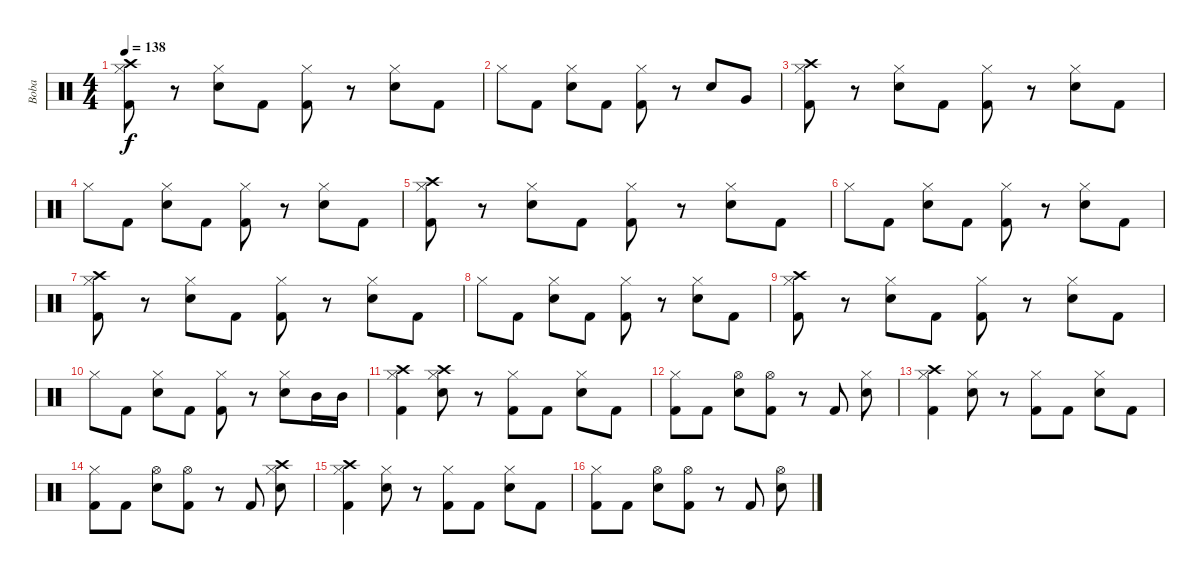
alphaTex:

\track ("Boba" "Boba") {instrument percussion}
\staff {score}
\articulation defaults
\ts (4 4)
\tempo 138
\clef neutral
\ks c
("Crash high (hit)" "Hi-Hat (closed)" "Kick (hit) 2").8{dy f} r.8 ("Hi-Hat (closed)" "Electric Snare (hit)").8 "Kick (hit) 2".8 ("Hi-Hat (closed)" "Kick (hit) 2").8 r.8 ("Hi-Hat (closed)" "Electric Snare (hit)").8 "Kick (hit) 2".8 |
"Hi-Hat (closed)".8 "Kick (hit) 2".8 ("Hi-Hat (closed)" "Electric Snare (hit)").8 "Kick (hit) 2".8 ("Hi-Hat (closed)" "Kick (hit) 2").8 r.8 "Electric Snare (hit)".8 "Very Low Tom (hit)".8 |
("Crash high (hit)" "Hi-Hat (closed)" "Kick (hit) 2").8 r.8 ("Hi-Hat (closed)" "Electric Snare (hit)").8 "Kick (hit) 2".8 ("Hi-Hat (closed)" "Kick (hit) 2").8 r.8 ("Hi-Hat (closed)" "Electric Snare (hit)").8 "Kick (hit) 2".8 |
"Hi-Hat (closed)".8 "Kick (hit) 2".8 ("Hi-Hat (closed)" "Electric Snare (hit)").8 "Kick (hit) 2".8 ("Hi-Hat (closed)" "Kick (hit) 2").8 r.8 ("Hi-Hat (closed)" "Electric Snare (hit)").8 "Kick (hit) 2".8 |
("Crash high (hit)" "Hi-Hat (closed)" "Kick (hit) 2").8 r.8 ("Hi-Hat (closed)" "Electric Snare (hit)").8 "Kick (hit) 2".8 ("Hi-Hat (closed)" "Kick (hit) 2").8 r.8 ("Hi-Hat (closed)" "Electric Snare (hit)").8 "Kick (hit) 2".8 |
"Hi-Hat (closed)".8 "Kick (hit) 2".8 ("Hi-Hat (closed)" "Electric Snare (hit)").8 "Kick (hit) 2".8 ("Hi-Hat (closed)" "Kick (hit) 2").8 r.8 ("Hi-Hat (closed)" "Electric Snare (hit)").8 "Kick (hit) 2".8 |
("Crash high (hit)" "Hi-Hat (closed)" "Kick (hit) 2").8 r.8 ("Hi-Hat (closed)" "Electric Snare (hit)").8 "Kick (hit) 2".8 ("Hi-Hat (closed)" "Kick (hit) 2").8 r.8 ("Hi-Hat (closed)" "Electric Snare (hit)").8 "Kick (hit) 2".8 |
"Hi-Hat (closed)".8 "Kick (hit) 2".8 ("Hi-Hat (closed)" "Electric Snare (hit)").8 "Kick (hit) 2".8 ("Hi-Hat (closed)" "Kick (hit) 2").8 r.8 ("Hi-Hat (closed)" "Electric Snare (hit)").8 "Kick (hit) 2".8 |
("Crash high (hit)" "Hi-Hat (closed)" "Kick (hit) 2").8 r.8 ("Hi-Hat (closed)" "Electric Snare (hit)").8 "Kick (hit) 2".8 ("Hi-Hat (closed)" "Kick (hit) 2").8 r.8 ("Hi-Hat (closed)" "Electric Snare (hit)").8 "Kick (hit) 2".8 |
"Hi-Hat (closed)".8 "Kick (hit) 2".8 ("Hi-Hat (closed)" "Electric Snare (hit)").8 "Kick (hit) 2".8 ("Hi-Hat (closed)" "Kick (hit) 2").8 r.8 ("Hi-Hat (closed)" "Electric Snare (hit)").8 "Mid Tom (hit)".16 "Mid Tom (hit)".16 |
("Crash high (hit)" "Hi-Hat (closed)" "Kick (hit) 2").4 ("Crash high (hit)" "Hi-Hat (closed)" "Electric Snare (hit)").8 r.8 ("Hi-Hat (closed)" "Kick (hit) 2").8 "Kick (hit) 2".8 ("Hi-Hat (closed)" "Electric Snare (hit)").8 "Kick (hit) 2".8 |
("Hi-Hat (closed)" "Kick (hit) 2").8 "Kick (hit) 2".8 ("Hi-Hat (open)" "Electric Snare (hit)").8 ("Hi-Hat (open)" "Kick (hit) 2").8 r.8 "Kick (hit) 2".8 ("Hi-Hat (closed)" "Electric Snare (hit)").8 |
("Crash high (hit)" "Hi-Hat (closed)" "Kick (hit) 2").4 ("Hi-Hat (closed)" "Electric Snare (hit)").8 r.8 ("Hi-Hat (closed)" "Kick (hit) 2").8 "Kick (hit) 2".8 ("Hi-Hat (closed)" "Electric Snare (hit)").8 "Kick (hit) 2".8 |
("Hi-Hat (closed)" "Kick (hit) 2").8 "Kick (hit) 2".8 ("Hi-Hat (open)" "Electric Snare (hit)").8 ("Hi-Hat (open)" "Kick (hit) 2").8 r.8 "Kick (hit) 2".8 ("Crash high (hit)" "Hi-Hat (closed)" "Electric Snare (hit)").8 |
("Crash high (hit)" "Hi-Hat (closed)" "Kick (hit) 2").4 ("Hi-Hat (closed)" "Electric Snare (hit)").8 r.8 ("Hi-Hat (closed)" "Kick (hit) 2").8 "Kick (hit) 2".8 ("Hi-Hat (closed)" "Electric Snare (hit)").8 "Kick (hit) 2".8 |
("Hi-Hat (closed)" "Kick (hit) 2").8 "Kick (hit) 2".8 ("Hi-Hat (open)" "Electric Snare (hit)").8 ("Hi-Hat (open)" "Kick (hit) 2").8 r.8 "Kick (hit) 2".8 ("Hi-Hat (open)" "Electric Snare (hit)").8
